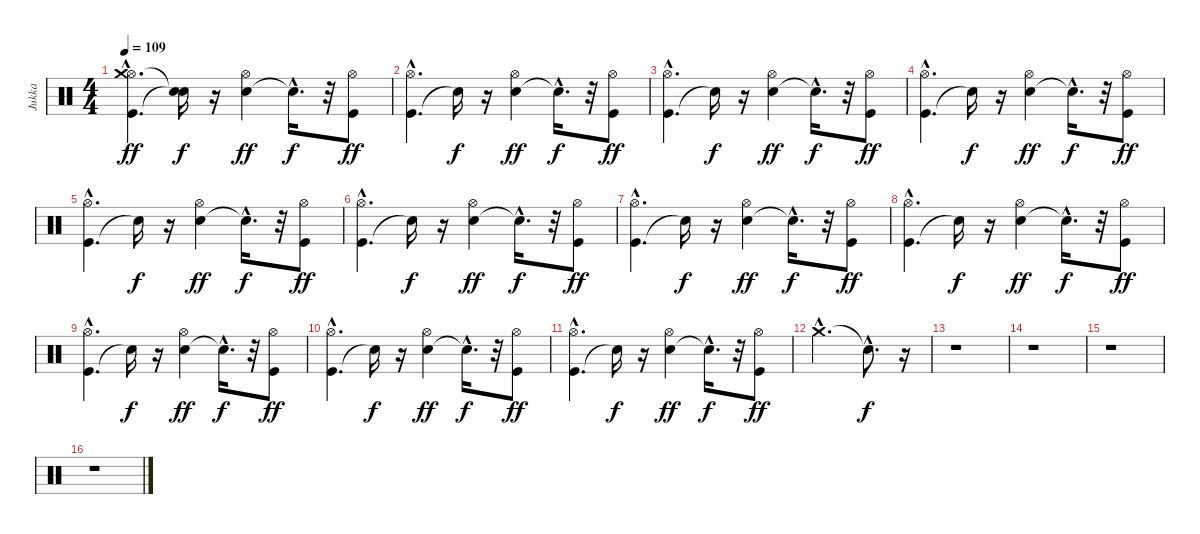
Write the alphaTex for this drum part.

\track ("Jukka" "Jukka") {instrument percussion}
\staff {score}
\articulation defaults
\ts (4 4)
\tempo 109
\clef neutral
\ks c
("Kick (hit)"{hac} "Hi-Hat (open)"{hac} "Crash medium (hit)"{hac}).4{d dy ff} ("Snare (hit)"{t} "Snare (hit)"{t}).16{dy f} r.16 ("Electric Snare (hit)" "Hi-Hat (open)").4{dy ff} "Snare (hit)"{hac t}.16{d dy f} r.32 ("Kick (hit)" "Hi-Hat (open)").8{dy ff} |
("Kick (hit)"{hac} "Hi-Hat (open)"{hac}).4{d} "Snare (hit)"{t}.16{dy f} r.16 ("Electric Snare (hit)" "Hi-Hat (open)").4{dy ff} "Snare (hit)"{hac t}.16{d dy f} r.32 ("Kick (hit)" "Hi-Hat (open)").8{dy ff} |
("Kick (hit)"{hac} "Hi-Hat (open)"{hac}).4{d} "Snare (hit)"{t}.16{dy f} r.16 ("Electric Snare (hit)" "Hi-Hat (open)").4{dy ff} "Snare (hit)"{hac t}.16{d dy f} r.32 ("Kick (hit)" "Hi-Hat (open)").8{dy ff} |
("Kick (hit)"{hac} "Hi-Hat (open)"{hac}).4{d} "Snare (hit)"{t}.16{dy f} r.16 ("Electric Snare (hit)" "Hi-Hat (open)").4{dy ff} "Snare (hit)"{hac t}.16{d dy f} r.32 ("Kick (hit)" "Hi-Hat (open)").8{dy ff} |
("Kick (hit)"{hac} "Hi-Hat (open)"{hac}).4{d} "Snare (hit)"{t}.16{dy f} r.16 ("Electric Snare (hit)" "Hi-Hat (open)").4{dy ff} "Snare (hit)"{hac t}.16{d dy f} r.32 ("Kick (hit)" "Hi-Hat (open)").8{dy ff} |
("Kick (hit)"{hac} "Hi-Hat (open)"{hac}).4{d} "Snare (hit)"{t}.16{dy f} r.16 ("Electric Snare (hit)" "Hi-Hat (open)").4{dy ff} "Snare (hit)"{hac t}.16{d dy f} r.32 ("Kick (hit)" "Hi-Hat (open)").8{dy ff} |
("Kick (hit)"{hac} "Hi-Hat (open)"{hac}).4{d} "Snare (hit)"{t}.16{dy f} r.16 ("Electric Snare (hit)" "Hi-Hat (open)").4{dy ff} "Snare (hit)"{hac t}.16{d dy f} r.32 ("Kick (hit)" "Hi-Hat (open)").8{dy ff} |
("Kick (hit)"{hac} "Hi-Hat (open)"{hac}).4{d} "Snare (hit)"{t}.16{dy f} r.16 ("Electric Snare (hit)" "Hi-Hat (open)").4{dy ff} "Snare (hit)"{hac t}.16{d dy f} r.32 ("Kick (hit)" "Hi-Hat (open)").8{dy ff} |
("Kick (hit)"{hac} "Hi-Hat (open)"{hac}).4{d} "Snare (hit)"{t}.16{dy f} r.16 ("Electric Snare (hit)" "Hi-Hat (open)").4{dy ff} "Snare (hit)"{hac t}.16{d dy f} r.32 ("Kick (hit)" "Hi-Hat (open)").8{dy ff} |
("Kick (hit)"{hac} "Hi-Hat (open)"{hac}).4{d} "Snare (hit)"{t}.16{dy f} r.16 ("Electric Snare (hit)" "Hi-Hat (open)").4{dy ff} "Snare (hit)"{hac t}.16{d dy f} r.32 ("Kick (hit)" "Hi-Hat (open)").8{dy ff} |
("Kick (hit)"{hac} "Hi-Hat (open)"{hac}).4{d} "Snare (hit)"{t}.16{dy f} r.16 ("Electric Snare (hit)" "Hi-Hat (open)").4{dy ff} "Snare (hit)"{hac t}.16{d dy f} r.32 ("Kick (hit)" "Hi-Hat (open)").8{dy ff} |
"Crash medium (hit)"{hac}.2{d} "Snare (hit)"{hac t}.8{d dy f} r.16 |
r.1 |
r.1 |
r.1 |
r.1
